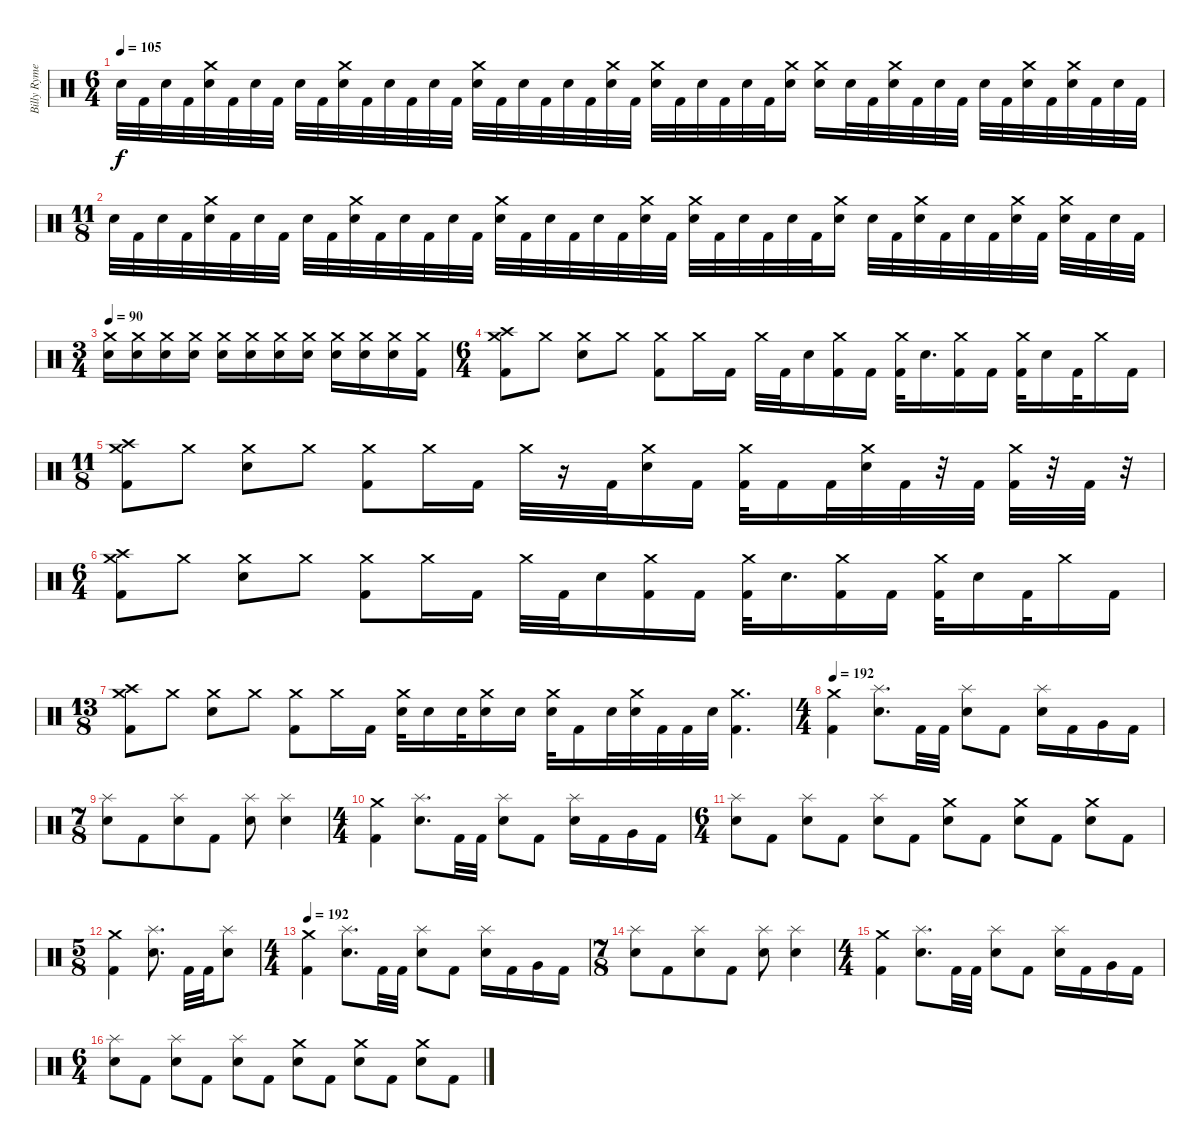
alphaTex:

\track ("Billy Rymer" "Billy Ryme") {instrument percussion}
\staff {score}
\articulation defaults
\ts (6 4)
\tempo 105
\clef neutral
\ks c "Electric Snare (hit)".32{dy f} "Kick (hit) 2".32 "Electric Snare (hit)".32 "Kick (hit) 2".32
("Crash medium (hit)" "Electric Snare (hit)").32 "Kick (hit) 2".32 "Electric Snare (hit)".32 "Kick (hit) 2".32 "Electric Snare (hit)".32 "Kick (hit) 2".32 ("Crash medium (hit)" "Electric Snare (hit)").32 "Kick (hit) 2".32 "Electric Snare (hit)".32 "Kick (hit) 2".32 "Electric Snare (hit)".32 "Kick (hit) 2".32 ("Crash medium (hit)" "Electric Snare (hit)").32 "Kick (hit) 2".32 "Electric Snare (hit)".32 "Kick (hit) 2".32 "Electric Snare (hit)".32 "Kick (hit) 2".32 ("Crash medium (hit)" "Electric Snare (hit)").32 "Kick (hit) 2".32 ("Crash medium (hit)" "Electric Snare (hit)").32 "Kick (hit) 2".32 "Electric Snare (hit)".32 "Kick (hit) 2".32 "Electric Snare (hit)".32 "Kick (hit) 2".32 ("Crash medium (hit)" "Electric Snare (hit)").16 ("Crash medium (hit)" "Electric Snare (hit)").16 "Electric Snare (hit)".32 "Kick (hit) 2".32 ("Crash medium (hit)" "Electric Snare (hit)").32 "Kick (hit) 2".32 "Electric Snare (hit)".32 "Kick (hit) 2".32 "Electric Snare (hit)".32 "Kick (hit) 2".32 ("Crash medium (hit)" "Electric Snare (hit)").32 "Kick (hit) 2".32 ("Crash medium (hit)" "Electric Snare (hit)").32 "Kick (hit) 2".32 "Electric Snare (hit)".32 "Kick (hit) 2".32 |
\ts (11 8)
"Electric Snare (hit)".32 "Kick (hit) 2".32 "Electric Snare (hit)".32 "Kick (hit) 2".32 ("Crash medium (hit)" "Electric Snare (hit)").32 "Kick (hit) 2".32 "Electric Snare (hit)".32 "Kick (hit) 2".32 "Electric Snare (hit)".32 "Kick (hit) 2".32 ("Crash medium (hit)" "Electric Snare (hit)").32 "Kick (hit) 2".32 "Electric Snare (hit)".32 "Kick (hit) 2".32 "Electric Snare (hit)".32 "Kick (hit) 2".32 ("Crash medium (hit)" "Electric Snare (hit)").32 "Kick (hit) 2".32 "Electric Snare (hit)".32 "Kick (hit) 2".32 "Electric Snare (hit)".32 "Kick (hit) 2".32 ("Crash medium (hit)" "Electric Snare (hit)").32 "Kick (hit) 2".32 ("Crash medium (hit)" "Electric Snare (hit)").32 "Kick (hit) 2".32 "Electric Snare (hit)".32 "Kick (hit) 2".32 "Electric Snare (hit)".32 "Kick (hit) 2".32 ("Crash medium (hit)" "Electric Snare (hit)").16 "Electric Snare (hit)".32 "Kick (hit) 2".32 ("Crash medium (hit)" "Electric Snare (hit)").32 "Kick (hit) 2".32 "Electric Snare (hit)".32 "Kick (hit) 2".32 ("Crash medium (hit)" "Electric Snare (hit)").32 "Kick (hit) 2".32 ("Crash medium (hit)" "Electric Snare (hit)").32 "Kick (hit) 2".32 "Electric Snare (hit)".32 "Kick (hit) 2".32 |
\ts (3 4)
\tempo 90
("Crash medium (hit)" "Electric Snare (hit)").16 ("Crash medium (hit)" "Electric Snare (hit)").16 ("Crash medium (hit)" "Electric Snare (hit)").16 ("Crash medium (hit)" "Electric Snare (hit)").16 ("Crash medium (hit)" "Electric Snare (hit)").16 ("Crash medium (hit)" "Electric Snare (hit)").16 ("Crash medium (hit)" "Electric Snare (hit)").16 ("Crash medium (hit)" "Electric Snare (hit)").16 ("Crash medium (hit)" "Electric Snare (hit)").16 ("Crash medium (hit)" "Electric Snare (hit)").16 ("Crash medium (hit)" "Electric Snare (hit)").16 ("Crash medium (hit)" "Kick (hit) 2").16 |
\ts (6 4)
("Crash high (hit)" "Crash medium (hit)" "Kick (hit) 2").8 "Crash medium (hit)".8 ("Crash medium (hit)" "Electric Snare (hit)").8 "Crash medium (hit)".8 ("Crash medium (hit)" "Kick (hit) 2").8 "Crash medium (hit)".16 "Kick (hit) 2".16 "Crash medium (hit)".32 "Kick (hit) 2".32 "Electric Snare (hit)".16 ("Crash medium (hit)" "Kick (hit) 2").16 "Kick (hit) 2".16 ("Crash medium (hit)" "Kick (hit) 2").32 "Electric Snare (hit)".16{d} ("Crash medium (hit)" "Kick (hit) 2").16 "Kick (hit) 2".16 ("Crash medium (hit)" "Kick (hit) 2").32 "Electric Snare (hit)".16 "Kick (hit) 2".32 "Crash medium (hit)".16 "Kick (hit) 2".16 |
\ts (11 8)
("Crash high (hit)" "Crash medium (hit)" "Kick (hit) 2").8 "Crash medium (hit)".8 ("Crash medium (hit)" "Electric Snare (hit)").8 "Crash medium (hit)".8 ("Crash medium (hit)" "Kick (hit) 2").8 "Crash medium (hit)".16 "Kick (hit) 2".16 "Crash medium (hit)".32 r.16 "Kick (hit) 2".32 ("Crash medium (hit)" "Electric Snare (hit)").16 "Kick (hit) 2".16 ("Crash medium (hit)" "Kick (hit) 2").32 "Kick (hit) 2".16 "Kick (hit) 2".32 ("Crash medium (hit)" "Electric Snare (hit)").32 "Kick (hit) 2".32 r.32 "Kick (hit) 2".32 ("Crash medium (hit)" "Kick (hit) 2").32 r.32 "Kick (hit) 2".32 r.32 |
\ts (6 4)
("Crash high (hit)" "Crash medium (hit)" "Kick (hit) 2").8 "Crash medium (hit)".8 ("Crash medium (hit)" "Electric Snare (hit)").8 "Crash medium (hit)".8 ("Crash medium (hit)" "Kick (hit) 2").8 "Crash medium (hit)".16 "Kick (hit) 2".16 "Crash medium (hit)".32 "Kick (hit) 2".32 "Electric Snare (hit)".16 ("Crash medium (hit)" "Kick (hit) 2").16 "Kick (hit) 2".16 ("Crash medium (hit)" "Kick (hit) 2").32 "Electric Snare (hit)".16{d} ("Crash medium (hit)" "Kick (hit) 2").16 "Kick (hit) 2".16 ("Crash medium (hit)" "Kick (hit) 2").32 "Electric Snare (hit)".16 "Kick (hit) 2".32 "Crash medium (hit)".16 "Kick (hit) 2".16 |
\ts (13 8)
("Crash high (hit)" "Crash medium (hit)" "Kick (hit) 2").8 "Crash medium (hit)".8 ("Crash medium (hit)" "Electric Snare (hit)").8 "Crash medium (hit)".8 ("Crash medium (hit)" "Kick (hit) 2").8 "Crash medium (hit)".16 "Kick (hit) 2".16 ("Crash medium (hit)" "Electric Snare (hit)").32 "Electric Snare (hit)".16 "Electric Snare (hit)".32 ("Crash medium (hit)" "Electric Snare (hit)").16 "Electric Snare (hit)".16 ("Crash medium (hit)" "Electric Snare (hit)").32 "Kick (hit) 2".16 "Electric Snare (hit)".32 ("Crash medium (hit)" "Electric Snare (hit)").32 "Kick (hit) 2".32 "Kick (hit) 2".32 "Electric Snare (hit)".32 ("Crash medium (hit)" "Kick (hit) 2").4{d} |
\ts (4 4)
\tempo 192
("Crash medium (hit)" "Kick (hit) 2").4 ("Splash (hit)" "Electric Snare (hit)").8{d} "Kick (hit) 2".32 "Kick (hit) 2".32 ("Splash (hit)" "Electric Snare (hit)").8 "Kick (hit) 2".8 ("Splash (hit)" "Electric Snare (hit)").16 "Kick (hit) 2".16 "Very Low Tom (hit)".16 "Kick (hit) 2".16 |
\ts (7 8)
("Splash (hit)" "Electric Snare (hit)").8 "Kick (hit) 2".8 ("Splash (hit)" "Electric Snare (hit)").8 "Kick (hit) 2".8 ("Splash (hit)" "Electric Snare (hit)").8 ("Splash (hit)" "Electric Snare (hit)").4 |
\ts (4 4)
("Crash medium (hit)" "Kick (hit) 2").4 ("Splash (hit)" "Electric Snare (hit)").8{d} "Kick (hit) 2".32 "Kick (hit) 2".32 ("Splash (hit)" "Electric Snare (hit)").8 "Kick (hit) 2".8 ("Splash (hit)" "Electric Snare (hit)").16 "Kick (hit) 2".16 "Very Low Tom (hit)".16 "Kick (hit) 2".16 |
\ts (6 4)
("Splash (hit)" "Electric Snare (hit)").8 "Kick (hit) 2".8 ("Splash (hit)" "Electric Snare (hit)").8 "Kick (hit) 2".8 ("Splash (hit)" "Electric Snare (hit)").8 "Kick (hit) 2".8 ("Crash medium (hit)" "Electric Snare (hit)").8 "Kick (hit) 2".8 ("Crash medium (hit)" "Electric Snare (hit)").8 "Kick (hit) 2".8 ("Crash medium (hit)" "Electric Snare (hit)").8 "Kick (hit) 2".8 |
\ts (5 8)
("Crash medium (hit)" "Kick (hit) 2").4 ("Splash (hit)" "Electric Snare (hit)").8{d} "Kick (hit) 2".32 "Kick (hit) 2".32 ("Splash (hit)" "Electric Snare (hit)").8 |
\ts (4 4)
\tempo 192
("Crash medium (hit)" "Kick (hit) 2").4 ("Splash (hit)" "Electric Snare (hit)").8{d} "Kick (hit) 2".32 "Kick (hit) 2".32 ("Splash (hit)" "Electric Snare (hit)").8 "Kick (hit) 2".8 ("Splash (hit)" "Electric Snare (hit)").16 "Kick (hit) 2".16 "Very Low Tom (hit)".16 "Kick (hit) 2".16 |
\ts (7 8)
("Splash (hit)" "Electric Snare (hit)").8 "Kick (hit) 2".8 ("Splash (hit)" "Electric Snare (hit)").8 "Kick (hit) 2".8 ("Splash (hit)" "Electric Snare (hit)").8 ("Splash (hit)" "Electric Snare (hit)").4 |
\ts (4 4)
("Crash medium (hit)" "Kick (hit) 2").4 ("Splash (hit)" "Electric Snare (hit)").8{d} "Kick (hit) 2".32 "Kick (hit) 2".32 ("Splash (hit)" "Electric Snare (hit)").8 "Kick (hit) 2".8 ("Splash (hit)" "Electric Snare (hit)").16 "Kick (hit) 2".16 "Very Low Tom (hit)".16 "Kick (hit) 2".16 |
\ts (6 4)
("Splash (hit)" "Electric Snare (hit)").8 "Kick (hit) 2".8 ("Splash (hit)" "Electric Snare (hit)").8 "Kick (hit) 2".8 ("Splash (hit)" "Electric Snare (hit)").8 "Kick (hit) 2".8 ("Crash medium (hit)" "Electric Snare (hit)").8 "Kick (hit) 2".8 ("Crash medium (hit)" "Electric Snare (hit)").8 "Kick (hit) 2".8 ("Crash medium (hit)" "Electric Snare (hit)").8 "Kick (hit) 2".8
